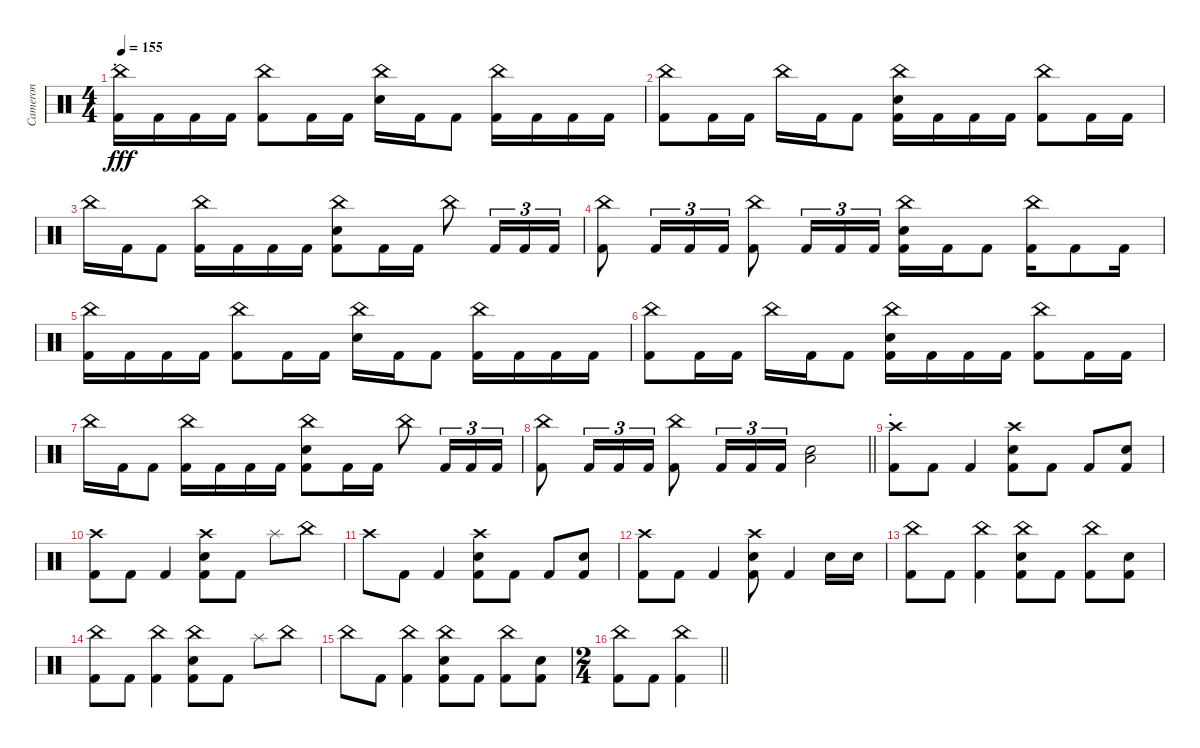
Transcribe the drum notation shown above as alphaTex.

\track ("Cameron" "Cameron") {instrument percussion}
\staff {score}
\articulation defaults
\ts (4 4)
\section ("" ".")
\tempo 155
\clef neutral
\ks c
("China (hit)" "Kick (hit) 2").16{dy fff} "Kick (hit) 2".16 "Kick (hit) 2".16 "Kick (hit) 2".16 ("China (hit)" "Kick (hit) 2").8 "Kick (hit) 2".16 "Kick (hit) 2".16 ("China (hit)" "Electric Snare (hit)").16 "Kick (hit) 2".16 "Kick (hit) 2".8 ("China (hit)" "Kick (hit) 2").16 "Kick (hit) 2".16 "Kick (hit) 2".16 "Kick (hit) 2".16 |
("China (hit)" "Kick (hit) 2").8 "Kick (hit) 2".16 "Kick (hit) 2".16 "China (hit)".16 "Kick (hit) 2".16 "Kick (hit) 2".8 ("China (hit)" "Electric Snare (hit)" "Kick (hit) 2").16 "Kick (hit) 2".16 "Kick (hit) 2".16 "Kick (hit) 2".16 ("China (hit)" "Kick (hit) 2").8 "Kick (hit) 2".16 "Kick (hit) 2".16 |
"China (hit)".16 "Kick (hit) 2".16 "Kick (hit) 2".8 ("China (hit)" "Kick (hit) 2").16 "Kick (hit) 2".16 "Kick (hit) 2".16 "Kick (hit) 2".16 ("China (hit)" "Electric Snare (hit)" "Kick (hit) 2").8 "Kick (hit) 2".16 "Kick (hit) 2".16 "China (hit)".8 "Kick (hit) 2".16{tu (3 2)} "Kick (hit) 2".16{tu (3 2)} "Kick (hit) 2".16{tu (3 2)} |
("China (hit)" "Kick (hit) 2").8 "Kick (hit) 2".16{tu (3 2)} "Kick (hit) 2".16{tu (3 2)} "Kick (hit) 2".16{tu (3 2)} ("China (hit)" "Kick (hit) 2").8 "Kick (hit) 2".16{tu (3 2)} "Kick (hit) 2".16{tu (3 2)} "Kick (hit) 2".16{tu (3 2)} ("China (hit)" "Electric Snare (hit)" "Kick (hit) 2").16 "Kick (hit) 2".16 "Kick (hit) 2".8 ("China (hit)" "Kick (hit) 2").16 "Kick (hit) 2".8 "Kick (hit) 2".16 |
("China (hit)" "Kick (hit) 2").16 "Kick (hit) 2".16 "Kick (hit) 2".16 "Kick (hit) 2".16 ("China (hit)" "Kick (hit) 2").8 "Kick (hit) 2".16 "Kick (hit) 2".16 ("China (hit)" "Electric Snare (hit)").16 "Kick (hit) 2".16 "Kick (hit) 2".8 ("China (hit)" "Kick (hit) 2").16 "Kick (hit) 2".16 "Kick (hit) 2".16 "Kick (hit) 2".16 |
("China (hit)" "Kick (hit) 2").8 "Kick (hit) 2".16 "Kick (hit) 2".16 "China (hit)".16 "Kick (hit) 2".16 "Kick (hit) 2".8 ("China (hit)" "Electric Snare (hit)" "Kick (hit) 2").16 "Kick (hit) 2".16 "Kick (hit) 2".16 "Kick (hit) 2".16 ("China (hit)" "Kick (hit) 2").8 "Kick (hit) 2".16 "Kick (hit) 2".16 |
"China (hit)".16 "Kick (hit) 2".16 "Kick (hit) 2".8 ("China (hit)" "Kick (hit) 2").16 "Kick (hit) 2".16 "Kick (hit) 2".16 "Kick (hit) 2".16 ("China (hit)" "Electric Snare (hit)" "Kick (hit) 2").8 "Kick (hit) 2".16 "Kick (hit) 2".16 "China (hit)".8 "Kick (hit) 2".16{tu (3 2)} "Kick (hit) 2".16{tu (3 2)} "Kick (hit) 2".16{tu (3 2)} |
\barLineRight lightlight
("China (hit)" "Kick (hit) 2").8 "Kick (hit) 2".16{tu (3 2)} "Kick (hit) 2".16{tu (3 2)} "Kick (hit) 2".16{tu (3 2)} ("China (hit)" "Kick (hit) 2").8 "Kick (hit) 2".16{tu (3 2)} "Kick (hit) 2".16{tu (3 2)} "Kick (hit) 2".16{tu (3 2)} ("Electric Snare (hit)" "Low Floor Tom (hit)").2 |
\section ("" ".")
("Crash high (hit)" "Kick (hit) 2").8 "Kick (hit) 2".8 "Kick (hit) 2".4 ("Crash high (hit)" "Electric Snare (hit)" "Kick (hit) 2").8 "Kick (hit) 2".8 "Kick (hit) 2".8 ("Electric Snare (hit)" "Kick (hit) 2").8 |
("Crash high (hit)" "Kick (hit) 2").8 "Kick (hit) 2".8 "Kick (hit) 2".4 ("Crash high (hit)" "Electric Snare (hit)" "Kick (hit) 2").8 "Kick (hit) 2".8 "Splash (hit)".8 "China (hit)".8 |
"Crash high (hit)".8 "Kick (hit) 2".8 "Kick (hit) 2".4 ("Crash high (hit)" "Electric Snare (hit)" "Kick (hit) 2").8 "Kick (hit) 2".8 "Kick (hit) 2".8 ("Electric Snare (hit)" "Kick (hit) 2").8 |
("Crash high (hit)" "Kick (hit) 2").8 "Kick (hit) 2".8 "Kick (hit) 2".4 ("Crash high (hit)" "Electric Snare (hit)" "Kick (hit) 2").8 "Kick (hit) 2".4 "Electric Snare (hit)".16 "Electric Snare (hit)".16 |
("China (hit)" "Kick (hit) 2").8 "Kick (hit) 2".8 ("China (hit)" "Kick (hit) 2").4 ("China (hit)" "Electric Snare (hit)" "Kick (hit) 2").8 "Kick (hit) 2".8 ("China (hit)" "Kick (hit) 2").8 ("Electric Snare (hit)" "Kick (hit) 2").8 |
("China (hit)" "Kick (hit) 2").8 "Kick (hit) 2".8 ("China (hit)" "Kick (hit) 2").4 ("China (hit)" "Electric Snare (hit)" "Kick (hit) 2").8 "Kick (hit) 2".8 "Splash (hit)".8 "China (hit)".8 |
"China (hit)".8 "Kick (hit) 2".8 ("China (hit)" "Kick (hit) 2").4 ("China (hit)" "Electric Snare (hit)" "Kick (hit) 2").8 "Kick (hit) 2".8 ("China (hit)" "Kick (hit) 2").8 ("Electric Snare (hit)" "Kick (hit) 2").8 |
\ts (2 4)
\barLineRight lightlight
("China (hit)" "Kick (hit) 2").8 "Kick (hit) 2".8 ("China (hit)" "Kick (hit) 2").4
